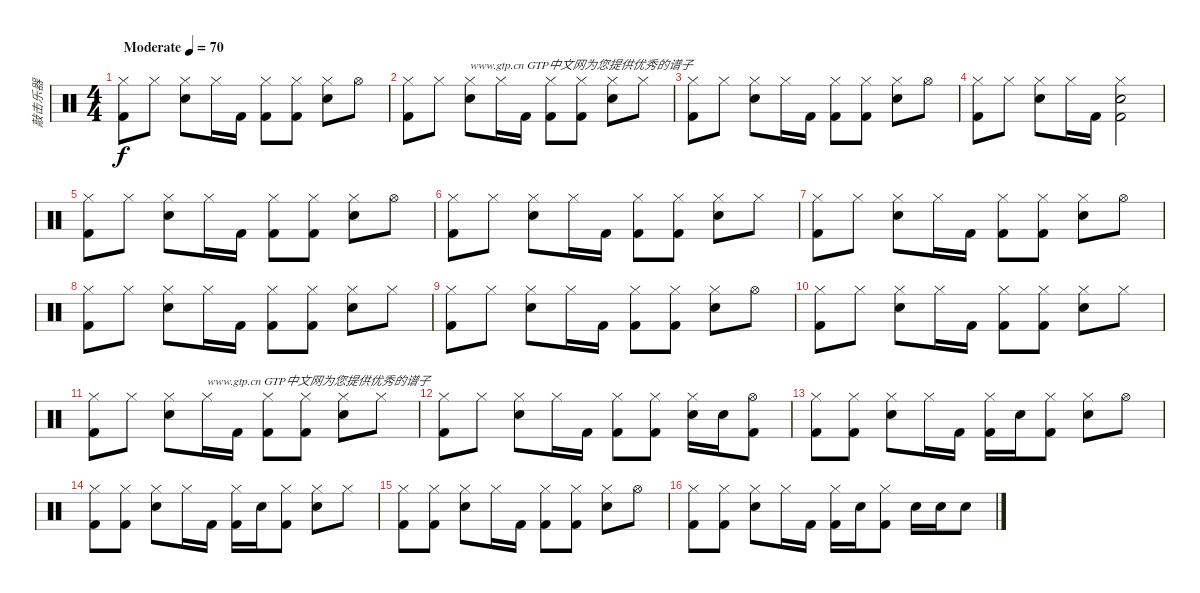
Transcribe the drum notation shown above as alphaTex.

\track ("敲击乐器" "敲击乐器") {instrument percussion}
\staff {score}
\articulation defaults
\ts (4 4)
\tempo (70 "Moderate")
\clef neutral
\ks c
("Hi-Hat (closed)" "Kick (hit) 2").8{dy f} "Hi-Hat (closed)".8 ("Hi-Hat (closed)" "Electric Snare (hit)").8 "Hi-Hat (closed)".16 "Kick (hit) 2".16 ("Hi-Hat (closed)" "Kick (hit) 2").8 ("Hi-Hat (closed)" "Kick (hit) 2").8 ("Hi-Hat (closed)" "Electric Snare (hit)").8 "Hi-Hat (open)".8 |
("Hi-Hat (closed)" "Kick (hit) 2").8 "Hi-Hat (closed)".8 ("Hi-Hat (closed)" "Electric Snare (hit)").8{txt "www.gtp.cn GTP中文网为您提供优秀的谱子"} "Hi-Hat (closed)".16 "Kick (hit) 2".16 ("Hi-Hat (closed)" "Kick (hit) 2").8 ("Hi-Hat (closed)" "Kick (hit) 2").8 ("Hi-Hat (closed)" "Electric Snare (hit)").8 "Hi-Hat (closed)".8 |
("Hi-Hat (closed)" "Kick (hit) 2").8 "Hi-Hat (closed)".8 ("Hi-Hat (closed)" "Electric Snare (hit)").8 "Hi-Hat (closed)".16 "Kick (hit) 2".16 ("Hi-Hat (closed)" "Kick (hit) 2").8 ("Hi-Hat (closed)" "Kick (hit) 2").8 ("Hi-Hat (closed)" "Electric Snare (hit)").8 "Hi-Hat (open)".8 |
("Hi-Hat (closed)" "Kick (hit) 2").8 "Hi-Hat (closed)".8 ("Hi-Hat (closed)" "Electric Snare (hit)").8 "Hi-Hat (closed)".16 "Kick (hit) 2".16 ("Hi-Hat (closed)" "Electric Snare (hit)" "Kick (hit) 2").2 |
("Hi-Hat (closed)" "Kick (hit) 2").8 "Hi-Hat (closed)".8 ("Hi-Hat (closed)" "Electric Snare (hit)").8 "Hi-Hat (closed)".16 "Kick (hit) 2".16 ("Hi-Hat (closed)" "Kick (hit) 2").8 ("Hi-Hat (closed)" "Kick (hit) 2").8 ("Hi-Hat (closed)" "Electric Snare (hit)").8 "Hi-Hat (open)".8 |
("Hi-Hat (closed)" "Kick (hit) 2").8 "Hi-Hat (closed)".8 ("Hi-Hat (closed)" "Electric Snare (hit)").8 "Hi-Hat (closed)".16 "Kick (hit) 2".16 ("Hi-Hat (closed)" "Kick (hit) 2").8 ("Hi-Hat (closed)" "Kick (hit) 2").8 ("Hi-Hat (closed)" "Electric Snare (hit)").8 "Hi-Hat (closed)".8 |
("Hi-Hat (closed)" "Kick (hit) 2").8 "Hi-Hat (closed)".8 ("Hi-Hat (closed)" "Electric Snare (hit)").8 "Hi-Hat (closed)".16 "Kick (hit) 2".16 ("Hi-Hat (closed)" "Kick (hit) 2").8 ("Hi-Hat (closed)" "Kick (hit) 2").8 ("Hi-Hat (closed)" "Electric Snare (hit)").8 "Hi-Hat (open)".8 |
("Hi-Hat (closed)" "Kick (hit) 2").8 "Hi-Hat (closed)".8 ("Hi-Hat (closed)" "Electric Snare (hit)").8 "Hi-Hat (closed)".16 "Kick (hit) 2".16 ("Hi-Hat (closed)" "Kick (hit) 2").8 ("Hi-Hat (closed)" "Kick (hit) 2").8 ("Hi-Hat (closed)" "Electric Snare (hit)").8 "Hi-Hat (closed)".8 |
("Hi-Hat (closed)" "Kick (hit) 2").8 "Hi-Hat (closed)".8 ("Hi-Hat (closed)" "Electric Snare (hit)").8 "Hi-Hat (closed)".16 "Kick (hit) 2".16 ("Hi-Hat (closed)" "Kick (hit) 2").8 ("Hi-Hat (closed)" "Kick (hit) 2").8 ("Hi-Hat (closed)" "Electric Snare (hit)").8 "Hi-Hat (open)".8 |
("Hi-Hat (closed)" "Kick (hit) 2").8 "Hi-Hat (closed)".8 ("Hi-Hat (closed)" "Electric Snare (hit)").8 "Hi-Hat (closed)".16 "Kick (hit) 2".16 ("Hi-Hat (closed)" "Kick (hit) 2").8 ("Hi-Hat (closed)" "Kick (hit) 2").8 ("Hi-Hat (closed)" "Electric Snare (hit)").8 "Hi-Hat (closed)".8 |
("Hi-Hat (closed)" "Kick (hit) 2").8 "Hi-Hat (closed)".8 ("Hi-Hat (closed)" "Electric Snare (hit)").8 "Hi-Hat (closed)".16{txt "www.gtp.cn GTP中文网为您提供优秀的谱子"} "Kick (hit) 2".16 ("Hi-Hat (closed)" "Kick (hit) 2").8 ("Hi-Hat (closed)" "Kick (hit) 2").8 ("Hi-Hat (closed)" "Electric Snare (hit)").8 "Hi-Hat (closed)".8 |
("Hi-Hat (closed)" "Kick (hit) 2").8 "Hi-Hat (closed)".8 ("Hi-Hat (closed)" "Electric Snare (hit)").8 "Hi-Hat (closed)".16 "Kick (hit) 2".16 ("Hi-Hat (closed)" "Kick (hit) 2").8 ("Hi-Hat (closed)" "Kick (hit) 2").8 ("Hi-Hat (closed)" "Electric Snare (hit)").16 "Electric Snare (hit)".16 ("Hi-Hat (open)" "Kick (hit) 2").8 |
("Hi-Hat (closed)" "Kick (hit) 2").8 ("Hi-Hat (closed)" "Kick (hit) 2").8 ("Hi-Hat (closed)" "Electric Snare (hit)").8 "Hi-Hat (closed)".16 "Kick (hit) 2".16 ("Hi-Hat (closed)" "Kick (hit) 2").16 "Electric Snare (hit)".16 ("Hi-Hat (closed)" "Kick (hit) 2").8 ("Hi-Hat (closed)" "Electric Snare (hit)").8 "Hi-Hat (open)".8 |
("Hi-Hat (closed)" "Kick (hit) 2").8 ("Hi-Hat (closed)" "Kick (hit) 2").8 ("Hi-Hat (closed)" "Electric Snare (hit)").8 "Hi-Hat (closed)".16 "Kick (hit) 2".16 ("Hi-Hat (closed)" "Kick (hit) 2").16 "Electric Snare (hit)".16 ("Hi-Hat (closed)" "Kick (hit) 2").8 ("Hi-Hat (closed)" "Electric Snare (hit)").8 "Hi-Hat (closed)".8 |
("Hi-Hat (closed)" "Kick (hit) 2").8 ("Hi-Hat (closed)" "Kick (hit) 2").8 ("Hi-Hat (closed)" "Electric Snare (hit)").8 "Hi-Hat (closed)".16 "Kick (hit) 2".16 ("Hi-Hat (closed)" "Kick (hit) 2").8 ("Hi-Hat (closed)" "Kick (hit) 2").8 ("Hi-Hat (closed)" "Electric Snare (hit)").8 "Hi-Hat (open)".8 |
("Hi-Hat (closed)" "Kick (hit) 2").8 ("Hi-Hat (closed)" "Kick (hit) 2").8 ("Hi-Hat (closed)" "Electric Snare (hit)").8 "Hi-Hat (closed)".16 "Kick (hit) 2".16 ("Hi-Hat (closed)" "Kick (hit) 2").16 "Electric Snare (hit)".16 ("Hi-Hat (closed)" "Kick (hit) 2").8 "Electric Snare (hit)".16 "Electric Snare (hit)".16 "Electric Snare (hit)".8
